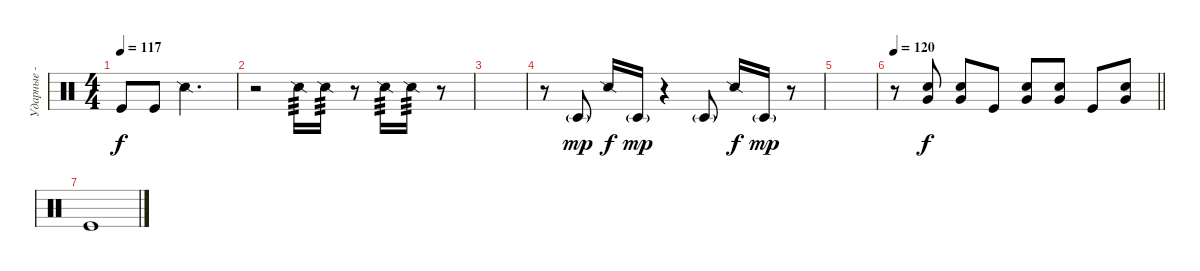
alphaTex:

\track ("Ударные - Джек Уайт" "Ударные - ") {instrument percussion}
\staff {score}
\articulation defaults
\ts (4 4)
\tempo 117
\clef neutral
\ks c "Kick (hit)".8{dy f} "Kick (hit)".8 "Snare (side stick) 2".2{d}
|
r.2 "Snare (side stick) 2".16{tp 3} "Snare (side stick) 2".16{tp 3} r.8 "Snare (side stick) 2".16{tp 3} "Snare (side stick) 2".16{tp 3} r.8 |
|
r.8 "Timbale low (hit)"{g}.8{dy mp} "Snare (side stick) 2".16{dy f} "Timbale low (hit)"{g}.16{dy mp} r.4 "Timbale low (hit)"{g}.8 "Snare (side stick) 2".16{dy f} "Timbale low (hit)"{g}.16{dy mp} r.8 |
|
\tempo 120
\barLineRight lightlight
r.8 ("Electric Snare (hit)" "Very Low Tom (hit)").8{dy f} ("Electric Snare (hit)" "Very Low Tom (hit)").8 "Kick (hit)".8 ("Electric Snare (hit)" "Very Low Tom (hit)").8 ("Electric Snare (hit)" "Very Low Tom (hit)").8 "Kick (hit)".8 ("Electric Snare (hit)" "Very Low Tom (hit)").8 |
"Kick (hit)".1
